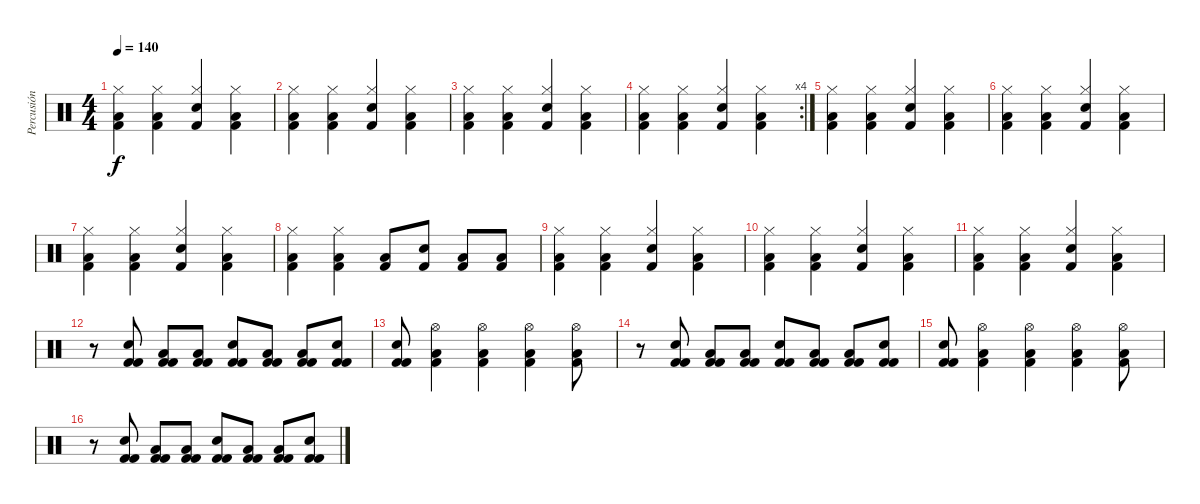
\track ("Percusión" "Percusión") {instrument percussion}
\staff {score}
\articulation defaults
\ts (4 4)
\tempo 140
\clef neutral
\ks c
("Kick (hit) 2" "Low Tom (hit)" "Hi-Hat (closed)").4{dy f} ("Kick (hit) 2" "Low Tom (hit)" "Hi-Hat (closed)").4 ("Kick (hit) 2" "Snare (hit) 2" "Hi-Hat (closed)").4 ("Kick (hit) 2" "Low Tom (hit)" "Hi-Hat (closed)").4 |
("Kick (hit) 2" "Low Tom (hit)" "Hi-Hat (closed)").4 ("Kick (hit) 2" "Low Tom (hit)" "Hi-Hat (closed)").4 ("Kick (hit) 2" "Snare (hit) 2" "Hi-Hat (closed)").4 ("Kick (hit) 2" "Low Tom (hit)" "Hi-Hat (closed)").4 |
("Kick (hit) 2" "Low Tom (hit)" "Hi-Hat (closed)").4 ("Kick (hit) 2" "Low Tom (hit)" "Hi-Hat (closed)").4 ("Kick (hit) 2" "Snare (hit) 2" "Hi-Hat (closed)").4 ("Kick (hit) 2" "Low Tom (hit)" "Hi-Hat (closed)").4 |
\rc 4
("Kick (hit) 2" "Low Tom (hit)" "Hi-Hat (closed)").4 ("Kick (hit) 2" "Low Tom (hit)" "Hi-Hat (closed)").4 ("Kick (hit) 2" "Snare (hit) 2" "Hi-Hat (closed)").4 ("Kick (hit) 2" "Low Tom (hit)" "Hi-Hat (closed)").4 |
("Kick (hit) 2" "Low Tom (hit)" "Hi-Hat (closed)").4 ("Kick (hit) 2" "Low Tom (hit)" "Hi-Hat (closed)").4 ("Kick (hit) 2" "Snare (hit) 2" "Hi-Hat (closed)").4 ("Kick (hit) 2" "Low Tom (hit)" "Hi-Hat (closed)").4 |
("Kick (hit) 2" "Low Tom (hit)" "Hi-Hat (closed)").4 ("Kick (hit) 2" "Low Tom (hit)" "Hi-Hat (closed)").4 ("Kick (hit) 2" "Snare (hit) 2" "Hi-Hat (closed)").4 ("Kick (hit) 2" "Low Tom (hit)" "Hi-Hat (closed)").4 |
("Kick (hit) 2" "Low Tom (hit)" "Hi-Hat (closed)").4 ("Kick (hit) 2" "Low Tom (hit)" "Hi-Hat (closed)").4 ("Kick (hit) 2" "Snare (hit) 2" "Hi-Hat (closed)").4 ("Kick (hit) 2" "Low Tom (hit)" "Hi-Hat (closed)").4 |
("Kick (hit) 2" "Low Tom (hit)" "Hi-Hat (closed)").4 ("Kick (hit) 2" "Low Tom (hit)" "Hi-Hat (closed)").4 ("Kick (hit) 2" "Low Tom (hit)").8 ("Kick (hit) 2" "Snare (hit) 2").8 ("Kick (hit) 2" "Low Tom (hit)").8 ("Kick (hit) 2" "Low Tom (hit)").8 |
("Kick (hit) 2" "Low Tom (hit)" "Hi-Hat (closed)").4 ("Kick (hit) 2" "Low Tom (hit)" "Hi-Hat (closed)").4 ("Kick (hit) 2" "Snare (hit) 2" "Hi-Hat (closed)").4 ("Kick (hit) 2" "Low Tom (hit)" "Hi-Hat (closed)").4 |
("Kick (hit) 2" "Low Tom (hit)" "Hi-Hat (closed)").4 ("Kick (hit) 2" "Low Tom (hit)" "Hi-Hat (closed)").4 ("Kick (hit) 2" "Snare (hit) 2" "Hi-Hat (closed)").4 ("Kick (hit) 2" "Low Tom (hit)" "Hi-Hat (closed)").4 |
("Kick (hit) 2" "Low Tom (hit)" "Hi-Hat (closed)").4 ("Kick (hit) 2" "Low Tom (hit)" "Hi-Hat (closed)").4 ("Kick (hit) 2" "Snare (hit) 2" "Hi-Hat (closed)").4 ("Kick (hit) 2" "Low Tom (hit)" "Hi-Hat (closed)").4 |
r.8 ("Kick (hit) 2" "Kick (hit) 2" "Snare (hit) 2").8 ("Kick (hit) 2" "Kick (hit) 2" "Low Tom (hit)").8 ("Kick (hit) 2" "Kick (hit) 2" "Low Tom (hit)").8 ("Kick (hit) 2" "Kick (hit) 2" "Snare (hit) 2").8 ("Kick (hit) 2" "Kick (hit) 2" "Low Tom (hit)").8 ("Kick (hit) 2" "Kick (hit) 2" "Low Tom (hit)").8 ("Kick (hit) 2" "Kick (hit) 2" "Snare (hit) 2").8 |
("Kick (hit) 2" "Kick (hit) 2" "Snare (hit) 2").8 ("Kick (hit) 2" "Low Tom (hit)" "Hi-Hat (open)").4 ("Kick (hit) 2" "Low Tom (hit)" "Hi-Hat (open)").4 ("Kick (hit) 2" "Low Tom (hit)" "Hi-Hat (open)").4 ("Kick (hit) 2" "Low Tom (hit)" "Hi-Hat (open)").8 |
r.8 ("Kick (hit) 2" "Kick (hit) 2" "Snare (hit) 2").8 ("Kick (hit) 2" "Kick (hit) 2" "Low Tom (hit)").8 ("Kick (hit) 2" "Kick (hit) 2" "Low Tom (hit)").8 ("Kick (hit) 2" "Kick (hit) 2" "Snare (hit) 2").8 ("Kick (hit) 2" "Kick (hit) 2" "Low Tom (hit)").8 ("Kick (hit) 2" "Kick (hit) 2" "Low Tom (hit)").8 ("Kick (hit) 2" "Kick (hit) 2" "Snare (hit) 2").8 |
("Kick (hit) 2" "Kick (hit) 2" "Snare (hit) 2").8 ("Kick (hit) 2" "Low Tom (hit)" "Hi-Hat (open)").4 ("Kick (hit) 2" "Low Tom (hit)" "Hi-Hat (open)").4 ("Kick (hit) 2" "Low Tom (hit)" "Hi-Hat (open)").4 ("Kick (hit) 2" "Low Tom (hit)" "Hi-Hat (open)").8 |
r.8 ("Kick (hit) 2" "Kick (hit) 2" "Snare (hit) 2").8 ("Kick (hit) 2" "Kick (hit) 2" "Low Tom (hit)").8 ("Kick (hit) 2" "Kick (hit) 2" "Low Tom (hit)").8 ("Kick (hit) 2" "Kick (hit) 2" "Snare (hit) 2").8 ("Kick (hit) 2" "Kick (hit) 2" "Low Tom (hit)").8 ("Kick (hit) 2" "Kick (hit) 2" "Low Tom (hit)").8 ("Kick (hit) 2" "Kick (hit) 2" "Snare (hit) 2").8
